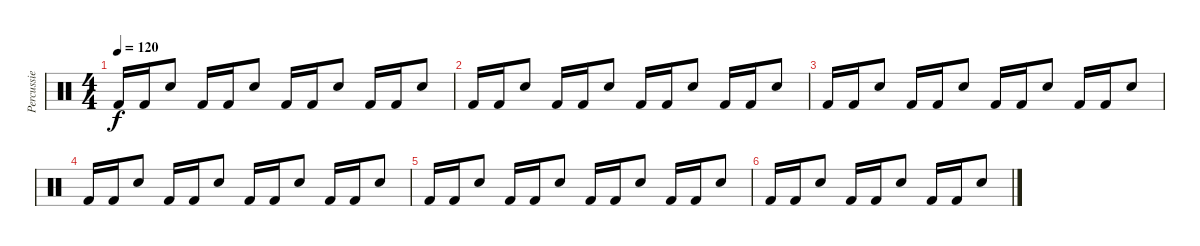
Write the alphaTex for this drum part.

\track ("Percussie" "Percussie") {instrument percussion}
\staff {score}
\articulation defaults
\ts (4 4)
\tempo 120
\clef neutral
\ks c "Kick (hit) 2".16{dy f} "Kick (hit) 2".16 "Electric Snare (hit)".8 "Kick (hit) 2".16 "Kick (hit) 2".16 "Electric Snare (hit)".8 "Kick (hit) 2".16 "Kick (hit) 2".16 "Electric Snare (hit)".8 "Kick (hit) 2".16 "Kick (hit) 2".16 "Electric Snare (hit)".8
|
"Kick (hit) 2".16 "Kick (hit) 2".16 "Electric Snare (hit)".8 "Kick (hit) 2".16 "Kick (hit) 2".16 "Electric Snare (hit)".8 "Kick (hit) 2".16 "Kick (hit) 2".16 "Electric Snare (hit)".8 "Kick (hit) 2".16 "Kick (hit) 2".16 "Electric Snare (hit)".8 |
"Kick (hit) 2".16 "Kick (hit) 2".16 "Electric Snare (hit)".8 "Kick (hit) 2".16 "Kick (hit) 2".16 "Electric Snare (hit)".8 "Kick (hit) 2".16 "Kick (hit) 2".16 "Electric Snare (hit)".8 "Kick (hit) 2".16 "Kick (hit) 2".16 "Electric Snare (hit)".8 |
"Kick (hit) 2".16 "Kick (hit) 2".16 "Electric Snare (hit)".8 "Kick (hit) 2".16 "Kick (hit) 2".16 "Electric Snare (hit)".8 "Kick (hit) 2".16 "Kick (hit) 2".16 "Electric Snare (hit)".8 "Kick (hit) 2".16 "Kick (hit) 2".16 "Electric Snare (hit)".8 |
"Kick (hit) 2".16 "Kick (hit) 2".16 "Electric Snare (hit)".8 "Kick (hit) 2".16 "Kick (hit) 2".16 "Electric Snare (hit)".8 "Kick (hit) 2".16 "Kick (hit) 2".16 "Electric Snare (hit)".8 "Kick (hit) 2".16 "Kick (hit) 2".16 "Electric Snare (hit)".8 |
"Kick (hit) 2".16 "Kick (hit) 2".16 "Electric Snare (hit)".8 "Kick (hit) 2".16 "Kick (hit) 2".16 "Electric Snare (hit)".8 "Kick (hit) 2".16 "Kick (hit) 2".16 "Electric Snare (hit)".8
